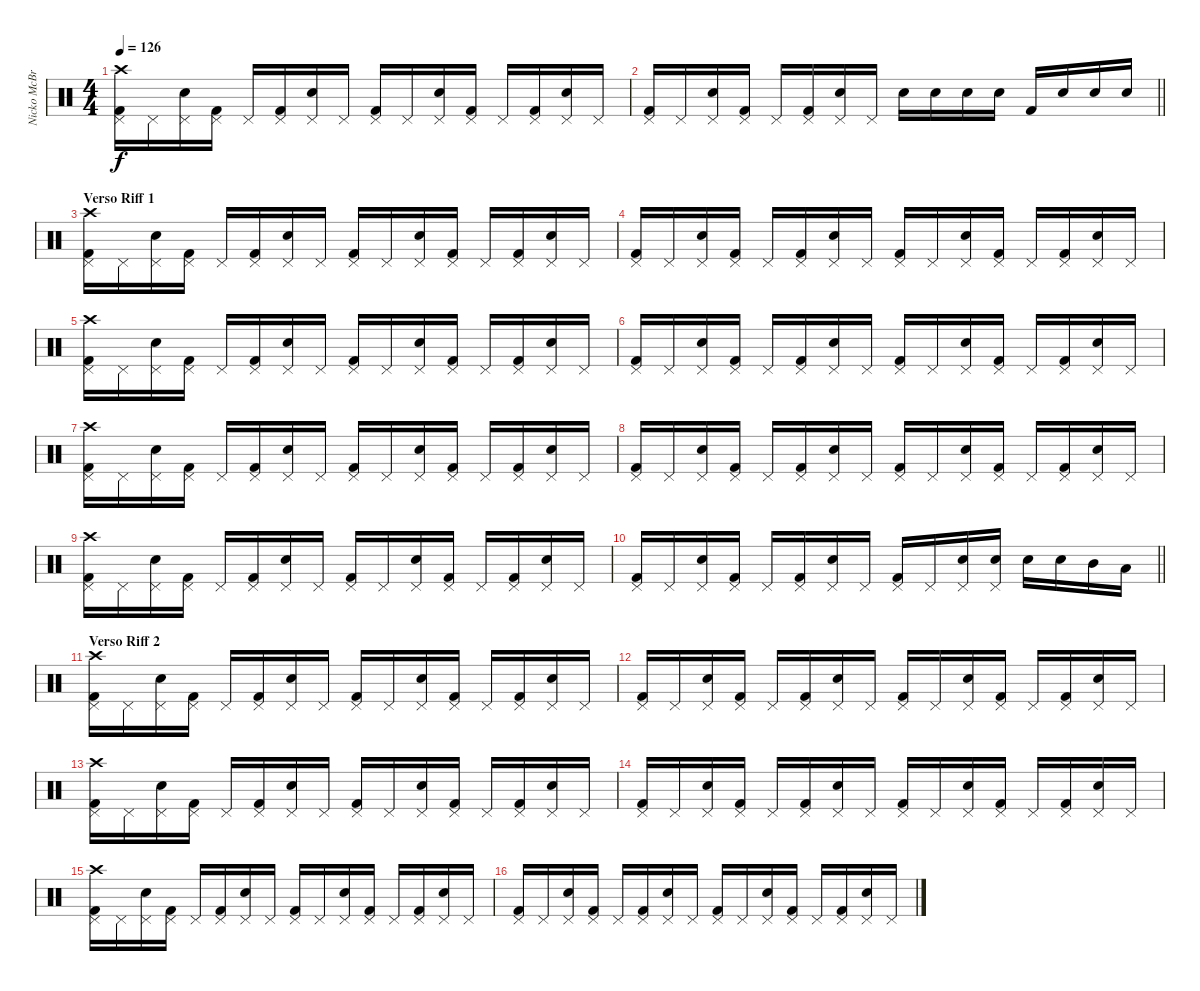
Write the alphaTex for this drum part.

\track ("Nicko McBrain" "Nicko McBr") {instrument percussion}
\staff {score}
\articulation defaults
\ts (4 4)
\tempo 126
\clef neutral
\ks c
("Kick (hit) 2" "Pedal Hi-Hat (hit)" "Crash high (hit)").16{dy f} "Pedal Hi-Hat (hit)".16 ("Snare (hit) 2" "Pedal Hi-Hat (hit)").16 ("Kick (hit) 2" "Pedal Hi-Hat (hit)").16 "Pedal Hi-Hat (hit)".16 ("Kick (hit) 2" "Pedal Hi-Hat (hit)").16 ("Snare (hit) 2" "Pedal Hi-Hat (hit)").16 "Pedal Hi-Hat (hit)".16 ("Kick (hit) 2" "Pedal Hi-Hat (hit)").16 "Pedal Hi-Hat (hit)".16 ("Snare (hit) 2" "Pedal Hi-Hat (hit)").16 ("Kick (hit) 2" "Pedal Hi-Hat (hit)").16 "Pedal Hi-Hat (hit)".16 ("Kick (hit) 2" "Pedal Hi-Hat (hit)").16 ("Snare (hit) 2" "Pedal Hi-Hat (hit)").16 "Pedal Hi-Hat (hit)".16 |
\barLineRight lightlight
("Kick (hit) 2" "Pedal Hi-Hat (hit)").16 "Pedal Hi-Hat (hit)".16 ("Snare (hit) 2" "Pedal Hi-Hat (hit)").16 ("Kick (hit) 2" "Pedal Hi-Hat (hit)").16 "Pedal Hi-Hat (hit)".16 ("Kick (hit) 2" "Pedal Hi-Hat (hit)").16 ("Snare (hit) 2" "Pedal Hi-Hat (hit)").16 "Pedal Hi-Hat (hit)".16 "Snare (hit) 2".16 "Snare (hit) 2".16 "Snare (hit) 2".16 "Snare (hit) 2".16 "Kick (hit) 2".16 "Snare (hit) 2".16 "Snare (hit) 2".16 "Snare (hit) 2".16 |
\section ("" "Verso Riff 1")
("Kick (hit) 2" "Pedal Hi-Hat (hit)" "Crash high (hit)").16 "Pedal Hi-Hat (hit)".16 ("Snare (hit) 2" "Pedal Hi-Hat (hit)").16 ("Kick (hit) 2" "Pedal Hi-Hat (hit)").16 "Pedal Hi-Hat (hit)".16 ("Kick (hit) 2" "Pedal Hi-Hat (hit)").16 ("Snare (hit) 2" "Pedal Hi-Hat (hit)").16 "Pedal Hi-Hat (hit)".16 ("Kick (hit) 2" "Pedal Hi-Hat (hit)").16 "Pedal Hi-Hat (hit)".16 ("Snare (hit) 2" "Pedal Hi-Hat (hit)").16 ("Kick (hit) 2" "Pedal Hi-Hat (hit)").16 "Pedal Hi-Hat (hit)".16 ("Kick (hit) 2" "Pedal Hi-Hat (hit)").16 ("Snare (hit) 2" "Pedal Hi-Hat (hit)").16 "Pedal Hi-Hat (hit)".16 |
("Kick (hit) 2" "Pedal Hi-Hat (hit)").16 "Pedal Hi-Hat (hit)".16 ("Snare (hit) 2" "Pedal Hi-Hat (hit)").16 ("Kick (hit) 2" "Pedal Hi-Hat (hit)").16 "Pedal Hi-Hat (hit)".16 ("Kick (hit) 2" "Pedal Hi-Hat (hit)").16 ("Snare (hit) 2" "Pedal Hi-Hat (hit)").16 "Pedal Hi-Hat (hit)".16 ("Kick (hit) 2" "Pedal Hi-Hat (hit)").16 "Pedal Hi-Hat (hit)".16 ("Snare (hit) 2" "Pedal Hi-Hat (hit)").16 ("Kick (hit) 2" "Pedal Hi-Hat (hit)").16 "Pedal Hi-Hat (hit)".16 ("Kick (hit) 2" "Pedal Hi-Hat (hit)").16 ("Snare (hit) 2" "Pedal Hi-Hat (hit)").16 "Pedal Hi-Hat (hit)".16 |
("Kick (hit) 2" "Pedal Hi-Hat (hit)" "Crash high (hit)").16 "Pedal Hi-Hat (hit)".16 ("Snare (hit) 2" "Pedal Hi-Hat (hit)").16 ("Kick (hit) 2" "Pedal Hi-Hat (hit)").16 "Pedal Hi-Hat (hit)".16 ("Kick (hit) 2" "Pedal Hi-Hat (hit)").16 ("Snare (hit) 2" "Pedal Hi-Hat (hit)").16 "Pedal Hi-Hat (hit)".16 ("Kick (hit) 2" "Pedal Hi-Hat (hit)").16 "Pedal Hi-Hat (hit)".16 ("Snare (hit) 2" "Pedal Hi-Hat (hit)").16 ("Kick (hit) 2" "Pedal Hi-Hat (hit)").16 "Pedal Hi-Hat (hit)".16 ("Kick (hit) 2" "Pedal Hi-Hat (hit)").16 ("Snare (hit) 2" "Pedal Hi-Hat (hit)").16 "Pedal Hi-Hat (hit)".16 |
("Kick (hit) 2" "Pedal Hi-Hat (hit)").16 "Pedal Hi-Hat (hit)".16 ("Snare (hit) 2" "Pedal Hi-Hat (hit)").16 ("Kick (hit) 2" "Pedal Hi-Hat (hit)").16 "Pedal Hi-Hat (hit)".16 ("Kick (hit) 2" "Pedal Hi-Hat (hit)").16 ("Snare (hit) 2" "Pedal Hi-Hat (hit)").16 "Pedal Hi-Hat (hit)".16 ("Kick (hit) 2" "Pedal Hi-Hat (hit)").16 "Pedal Hi-Hat (hit)".16 ("Snare (hit) 2" "Pedal Hi-Hat (hit)").16 ("Kick (hit) 2" "Pedal Hi-Hat (hit)").16 "Pedal Hi-Hat (hit)".16 ("Kick (hit) 2" "Pedal Hi-Hat (hit)").16 ("Snare (hit) 2" "Pedal Hi-Hat (hit)").16 "Pedal Hi-Hat (hit)".16 |
("Kick (hit) 2" "Pedal Hi-Hat (hit)" "Crash high (hit)").16 "Pedal Hi-Hat (hit)".16 ("Snare (hit) 2" "Pedal Hi-Hat (hit)").16 ("Kick (hit) 2" "Pedal Hi-Hat (hit)").16 "Pedal Hi-Hat (hit)".16 ("Kick (hit) 2" "Pedal Hi-Hat (hit)").16 ("Snare (hit) 2" "Pedal Hi-Hat (hit)").16 "Pedal Hi-Hat (hit)".16 ("Kick (hit) 2" "Pedal Hi-Hat (hit)").16 "Pedal Hi-Hat (hit)".16 ("Snare (hit) 2" "Pedal Hi-Hat (hit)").16 ("Kick (hit) 2" "Pedal Hi-Hat (hit)").16 "Pedal Hi-Hat (hit)".16 ("Kick (hit) 2" "Pedal Hi-Hat (hit)").16 ("Snare (hit) 2" "Pedal Hi-Hat (hit)").16 "Pedal Hi-Hat (hit)".16 |
("Kick (hit) 2" "Pedal Hi-Hat (hit)").16 "Pedal Hi-Hat (hit)".16 ("Snare (hit) 2" "Pedal Hi-Hat (hit)").16 ("Kick (hit) 2" "Pedal Hi-Hat (hit)").16 "Pedal Hi-Hat (hit)".16 ("Kick (hit) 2" "Pedal Hi-Hat (hit)").16 ("Snare (hit) 2" "Pedal Hi-Hat (hit)").16 "Pedal Hi-Hat (hit)".16 ("Kick (hit) 2" "Pedal Hi-Hat (hit)").16 "Pedal Hi-Hat (hit)".16 ("Snare (hit) 2" "Pedal Hi-Hat (hit)").16 ("Kick (hit) 2" "Pedal Hi-Hat (hit)").16 "Pedal Hi-Hat (hit)".16 ("Kick (hit) 2" "Pedal Hi-Hat (hit)").16 ("Snare (hit) 2" "Pedal Hi-Hat (hit)").16 "Pedal Hi-Hat (hit)".16 |
("Kick (hit) 2" "Pedal Hi-Hat (hit)" "Crash high (hit)").16 "Pedal Hi-Hat (hit)".16 ("Snare (hit) 2" "Pedal Hi-Hat (hit)").16 ("Kick (hit) 2" "Pedal Hi-Hat (hit)").16 "Pedal Hi-Hat (hit)".16 ("Kick (hit) 2" "Pedal Hi-Hat (hit)").16 ("Snare (hit) 2" "Pedal Hi-Hat (hit)").16 "Pedal Hi-Hat (hit)".16 ("Kick (hit) 2" "Pedal Hi-Hat (hit)").16 "Pedal Hi-Hat (hit)".16 ("Snare (hit) 2" "Pedal Hi-Hat (hit)").16 ("Kick (hit) 2" "Pedal Hi-Hat (hit)").16 "Pedal Hi-Hat (hit)".16 ("Kick (hit) 2" "Pedal Hi-Hat (hit)").16 ("Snare (hit) 2" "Pedal Hi-Hat (hit)").16 "Pedal Hi-Hat (hit)".16 |
\barLineRight lightlight
("Kick (hit) 2" "Pedal Hi-Hat (hit)").16 "Pedal Hi-Hat (hit)".16 ("Snare (hit) 2" "Pedal Hi-Hat (hit)").16 ("Kick (hit) 2" "Pedal Hi-Hat (hit)").16 "Pedal Hi-Hat (hit)".16 ("Kick (hit) 2" "Pedal Hi-Hat (hit)").16 ("Snare (hit) 2" "Pedal Hi-Hat (hit)").16 "Pedal Hi-Hat (hit)".16 ("Kick (hit) 2" "Pedal Hi-Hat (hit)").16 "Pedal Hi-Hat (hit)".16 ("Snare (hit) 2" "Pedal Hi-Hat (hit)").16 ("Snare (hit) 2" "Pedal Hi-Hat (hit)").16 "Snare (hit) 2".16 "Snare (hit) 2".16 "Mid Tom (hit)".16 "Low Tom (hit)".16 |
\section ("" "Verso Riff 2")
("Kick (hit) 2" "Pedal Hi-Hat (hit)" "Crash high (hit)").16 "Pedal Hi-Hat (hit)".16 ("Snare (hit) 2" "Pedal Hi-Hat (hit)").16 ("Kick (hit) 2" "Pedal Hi-Hat (hit)").16 "Pedal Hi-Hat (hit)".16 ("Kick (hit) 2" "Pedal Hi-Hat (hit)").16 ("Snare (hit) 2" "Pedal Hi-Hat (hit)").16 "Pedal Hi-Hat (hit)".16 ("Kick (hit) 2" "Pedal Hi-Hat (hit)").16 "Pedal Hi-Hat (hit)".16 ("Snare (hit) 2" "Pedal Hi-Hat (hit)").16 ("Kick (hit) 2" "Pedal Hi-Hat (hit)").16 "Pedal Hi-Hat (hit)".16 ("Kick (hit) 2" "Pedal Hi-Hat (hit)").16 ("Snare (hit) 2" "Pedal Hi-Hat (hit)").16 "Pedal Hi-Hat (hit)".16 |
("Kick (hit) 2" "Pedal Hi-Hat (hit)").16 "Pedal Hi-Hat (hit)".16 ("Snare (hit) 2" "Pedal Hi-Hat (hit)").16 ("Kick (hit) 2" "Pedal Hi-Hat (hit)").16 "Pedal Hi-Hat (hit)".16 ("Kick (hit) 2" "Pedal Hi-Hat (hit)").16 ("Snare (hit) 2" "Pedal Hi-Hat (hit)").16 "Pedal Hi-Hat (hit)".16 ("Kick (hit) 2" "Pedal Hi-Hat (hit)").16 "Pedal Hi-Hat (hit)".16 ("Snare (hit) 2" "Pedal Hi-Hat (hit)").16 ("Kick (hit) 2" "Pedal Hi-Hat (hit)").16 "Pedal Hi-Hat (hit)".16 ("Kick (hit) 2" "Pedal Hi-Hat (hit)").16 ("Snare (hit) 2" "Pedal Hi-Hat (hit)").16 "Pedal Hi-Hat (hit)".16 |
("Kick (hit) 2" "Pedal Hi-Hat (hit)" "Crash high (hit)").16 "Pedal Hi-Hat (hit)".16 ("Snare (hit) 2" "Pedal Hi-Hat (hit)").16 ("Kick (hit) 2" "Pedal Hi-Hat (hit)").16 "Pedal Hi-Hat (hit)".16 ("Kick (hit) 2" "Pedal Hi-Hat (hit)").16 ("Snare (hit) 2" "Pedal Hi-Hat (hit)").16 "Pedal Hi-Hat (hit)".16 ("Kick (hit) 2" "Pedal Hi-Hat (hit)").16 "Pedal Hi-Hat (hit)".16 ("Snare (hit) 2" "Pedal Hi-Hat (hit)").16 ("Kick (hit) 2" "Pedal Hi-Hat (hit)").16 "Pedal Hi-Hat (hit)".16 ("Kick (hit) 2" "Pedal Hi-Hat (hit)").16 ("Snare (hit) 2" "Pedal Hi-Hat (hit)").16 "Pedal Hi-Hat (hit)".16 |
("Kick (hit) 2" "Pedal Hi-Hat (hit)").16 "Pedal Hi-Hat (hit)".16 ("Snare (hit) 2" "Pedal Hi-Hat (hit)").16 ("Kick (hit) 2" "Pedal Hi-Hat (hit)").16 "Pedal Hi-Hat (hit)".16 ("Kick (hit) 2" "Pedal Hi-Hat (hit)").16 ("Snare (hit) 2" "Pedal Hi-Hat (hit)").16 "Pedal Hi-Hat (hit)".16 ("Kick (hit) 2" "Pedal Hi-Hat (hit)").16 "Pedal Hi-Hat (hit)".16 ("Snare (hit) 2" "Pedal Hi-Hat (hit)").16 ("Kick (hit) 2" "Pedal Hi-Hat (hit)").16 "Pedal Hi-Hat (hit)".16 ("Kick (hit) 2" "Pedal Hi-Hat (hit)").16 ("Snare (hit) 2" "Pedal Hi-Hat (hit)").16 "Pedal Hi-Hat (hit)".16 |
("Kick (hit) 2" "Pedal Hi-Hat (hit)" "Crash high (hit)").16 "Pedal Hi-Hat (hit)".16 ("Snare (hit) 2" "Pedal Hi-Hat (hit)").16 ("Kick (hit) 2" "Pedal Hi-Hat (hit)").16 "Pedal Hi-Hat (hit)".16 ("Kick (hit) 2" "Pedal Hi-Hat (hit)").16 ("Snare (hit) 2" "Pedal Hi-Hat (hit)").16 "Pedal Hi-Hat (hit)".16 ("Kick (hit) 2" "Pedal Hi-Hat (hit)").16 "Pedal Hi-Hat (hit)".16 ("Snare (hit) 2" "Pedal Hi-Hat (hit)").16 ("Kick (hit) 2" "Pedal Hi-Hat (hit)").16 "Pedal Hi-Hat (hit)".16 ("Kick (hit) 2" "Pedal Hi-Hat (hit)").16 ("Snare (hit) 2" "Pedal Hi-Hat (hit)").16 "Pedal Hi-Hat (hit)".16 |
("Kick (hit) 2" "Pedal Hi-Hat (hit)").16 "Pedal Hi-Hat (hit)".16 ("Snare (hit) 2" "Pedal Hi-Hat (hit)").16 ("Kick (hit) 2" "Pedal Hi-Hat (hit)").16 "Pedal Hi-Hat (hit)".16 ("Kick (hit) 2" "Pedal Hi-Hat (hit)").16 ("Snare (hit) 2" "Pedal Hi-Hat (hit)").16 "Pedal Hi-Hat (hit)".16 ("Kick (hit) 2" "Pedal Hi-Hat (hit)").16 "Pedal Hi-Hat (hit)".16 ("Snare (hit) 2" "Pedal Hi-Hat (hit)").16 ("Kick (hit) 2" "Pedal Hi-Hat (hit)").16 "Pedal Hi-Hat (hit)".16 ("Kick (hit) 2" "Pedal Hi-Hat (hit)").16 ("Snare (hit) 2" "Pedal Hi-Hat (hit)").16 "Pedal Hi-Hat (hit)".16
